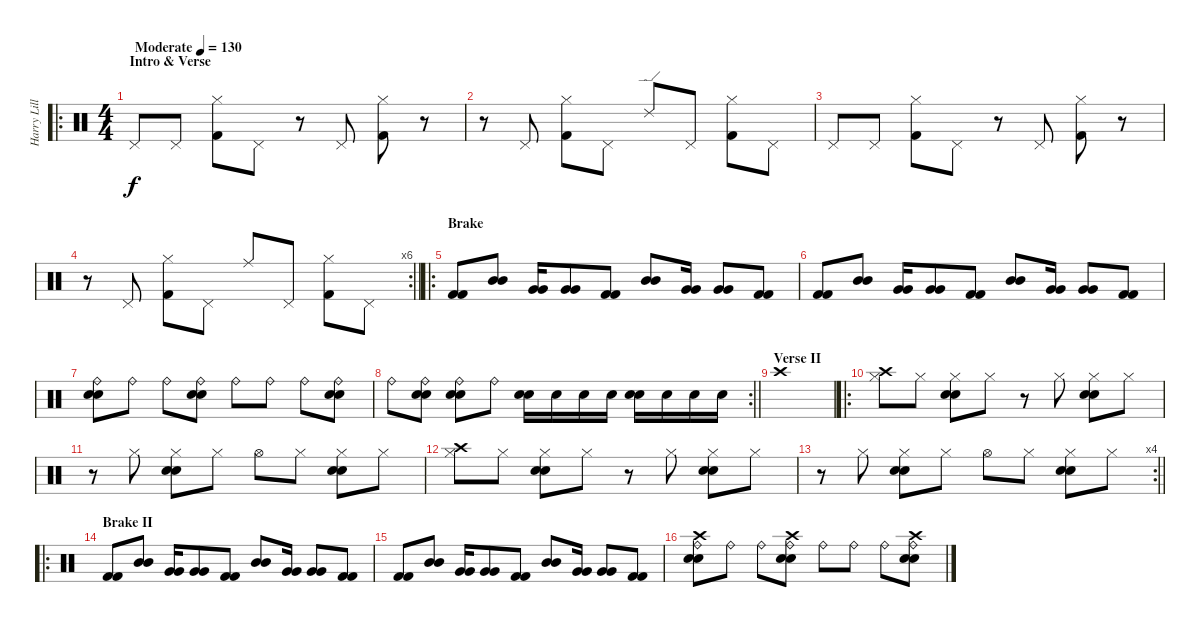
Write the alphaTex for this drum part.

\track ("Harry Lillevars" "Harry Lill") {instrument percussion}
\staff {score}
\articulation defaults
\ro
\ts (4 4)
\section ("" "Intro & Verse")
\tempo (130 "Moderate")
\clef neutral
\ks c "Pedal Hi-Hat (hit)".8{dy f} "Pedal Hi-Hat (hit)".8
("Hi-Hat (closed)" "Kick (hit) 2").8 "Pedal Hi-Hat (hit)".8 r.8 "Pedal Hi-Hat (hit)".8 ("Hi-Hat (closed)" "Kick (hit) 2").8 r.8 |
r.8 "Pedal Hi-Hat (hit)".8 ("Hi-Hat (closed)" "Kick (hit) 2").8 "Pedal Hi-Hat (hit)".8 "Ride (edge) 2".8 "Pedal Hi-Hat (hit)".8 ("Hi-Hat (closed)" "Kick (hit) 2").8 "Pedal Hi-Hat (hit)".8 |
"Pedal Hi-Hat (hit)".8 "Pedal Hi-Hat (hit)".8 ("Hi-Hat (closed)" "Kick (hit) 2").8 "Pedal Hi-Hat (hit)".8 r.8 "Pedal Hi-Hat (hit)".8 ("Hi-Hat (closed)" "Kick (hit) 2").8 r.8 |
\rc 6
\barLineRight lightlight
r.8 "Pedal Hi-Hat (hit)".8 ("Hi-Hat (closed)" "Kick (hit) 2").8 "Pedal Hi-Hat (hit)".8 "Ride (middle)".8 "Pedal Hi-Hat (hit)".8 ("Hi-Hat (closed)" "Kick (hit) 2").8 "Pedal Hi-Hat (hit)".8 |
\ro
\section ("" "Brake")
("Kick (hit) 2" "Kick (hit) 2").8 ("Mid Tom (hit)" "Mid Tom (hit)").8 ("Very Low Tom (hit)" "Very Low Tom (hit)").16 ("Very Low Tom (hit)" "Very Low Tom (hit)").8 ("Kick (hit) 2" "Kick (hit) 2").8 ("Mid Tom (hit)" "Mid Tom (hit)").8 ("Very Low Tom (hit)" "Very Low Tom (hit)").16 ("Very Low Tom (hit)" "Very Low Tom (hit)").8 ("Kick (hit) 2" "Kick (hit) 2").8 |
("Kick (hit) 2" "Kick (hit) 2").8 ("Mid Tom (hit)" "Mid Tom (hit)").8 ("Very Low Tom (hit)" "Very Low Tom (hit)").16 ("Very Low Tom (hit)" "Very Low Tom (hit)").8 ("Kick (hit) 2" "Kick (hit) 2").8 ("Mid Tom (hit)" "Mid Tom (hit)").8 ("Very Low Tom (hit)" "Very Low Tom (hit)").16 ("Very Low Tom (hit)" "Very Low Tom (hit)").8 ("Kick (hit) 2" "Kick (hit) 2").8 |
("Ride (bell)" "Electric Snare (hit)" "Snare (hit) 2").8 "Ride (bell)".8 "Ride (bell)".8 ("Ride (bell)" "Electric Snare (hit)" "Snare (hit) 2").8 "Ride (bell)".8 "Ride (bell)".8 "Ride (bell)".8 ("Ride (bell)" "Electric Snare (hit)" "Snare (hit) 2").8 |
\rc 2
\barLineRight lightlight "Ride (bell)".8
("Ride (bell)" "Electric Snare (hit)" "Snare (hit) 2").8 ("Ride (bell)" "Electric Snare (hit)" "Snare (hit) 2").8 "Ride (bell)".8 ("Snare (hit) 2" "Electric Snare (hit)").16 "Electric Snare (hit)".16 "Electric Snare (hit)".16 "Electric Snare (hit)".16 ("Snare (hit) 2" "Electric Snare (hit)").16 "Electric Snare (hit)".16 "Electric Snare (hit)".16 "Electric Snare (hit)".16 |
\section ("" "Verse II")
"Crash high (hit)".1 |
\ro
("Crash high (hit)" "Hi-Hat (closed)").8 "Hi-Hat (closed)".8 ("Snare (hit) 2" "Hi-Hat (closed)" "Electric Snare (hit)").8 "Hi-Hat (closed)".8 r.8 "Hi-Hat (closed)".8 ("Snare (hit) 2" "Hi-Hat (closed)" "Electric Snare (hit)").8 "Hi-Hat (closed)".8 |
r.8 "Hi-Hat (closed)".8 ("Snare (hit) 2" "Hi-Hat (closed)" "Electric Snare (hit)").8 "Hi-Hat (closed)".8 "Hi-Hat (open)".8 "Hi-Hat (closed)".8 ("Snare (hit) 2" "Hi-Hat (closed)" "Electric Snare (hit)").8 "Hi-Hat (closed)".8 |
("Crash high (hit)" "Hi-Hat (closed)").8 "Hi-Hat (closed)".8 ("Snare (hit) 2" "Hi-Hat (closed)" "Electric Snare (hit)").8 "Hi-Hat (closed)".8 r.8 "Hi-Hat (closed)".8 ("Snare (hit) 2" "Hi-Hat (closed)" "Electric Snare (hit)").8 "Hi-Hat (closed)".8 |
\rc 4
\barLineRight lightlight
r.8 "Hi-Hat (closed)".8 ("Snare (hit) 2" "Hi-Hat (closed)" "Electric Snare (hit)").8 "Hi-Hat (closed)".8 "Hi-Hat (open)".8 "Hi-Hat (closed)".8 ("Snare (hit) 2" "Hi-Hat (closed)" "Electric Snare (hit)").8 "Hi-Hat (closed)".8 |
\ro
\section ("" "Brake II")
("Kick (hit) 2" "Kick (hit) 2").8 ("Mid Tom (hit)" "Mid Tom (hit)").8 ("Very Low Tom (hit)" "Very Low Tom (hit)").16 ("Very Low Tom (hit)" "Very Low Tom (hit)").8 ("Kick (hit) 2" "Kick (hit) 2").8 ("Mid Tom (hit)" "Mid Tom (hit)").8 ("Very Low Tom (hit)" "Very Low Tom (hit)").16 ("Very Low Tom (hit)" "Very Low Tom (hit)").8 ("Kick (hit) 2" "Kick (hit) 2").8 |
("Kick (hit) 2" "Kick (hit) 2").8 ("Mid Tom (hit)" "Mid Tom (hit)").8 ("Very Low Tom (hit)" "Very Low Tom (hit)").16 ("Very Low Tom (hit)" "Very Low Tom (hit)").8 ("Kick (hit) 2" "Kick (hit) 2").8 ("Mid Tom (hit)" "Mid Tom (hit)").8 ("Very Low Tom (hit)" "Very Low Tom (hit)").16 ("Very Low Tom (hit)" "Very Low Tom (hit)").8 ("Kick (hit) 2" "Kick (hit) 2").8 |
("Crash high (hit)" "Ride (bell)" "Electric Snare (hit)" "Snare (hit) 2").8 "Ride (bell)".8 "Ride (bell)".8 ("Crash high (hit)" "Ride (bell)" "Electric Snare (hit)" "Snare (hit) 2").8 "Ride (bell)".8 "Ride (bell)".8 "Ride (bell)".8 ("Crash high (hit)" "Ride (bell)" "Electric Snare (hit)" "Snare (hit) 2").8
